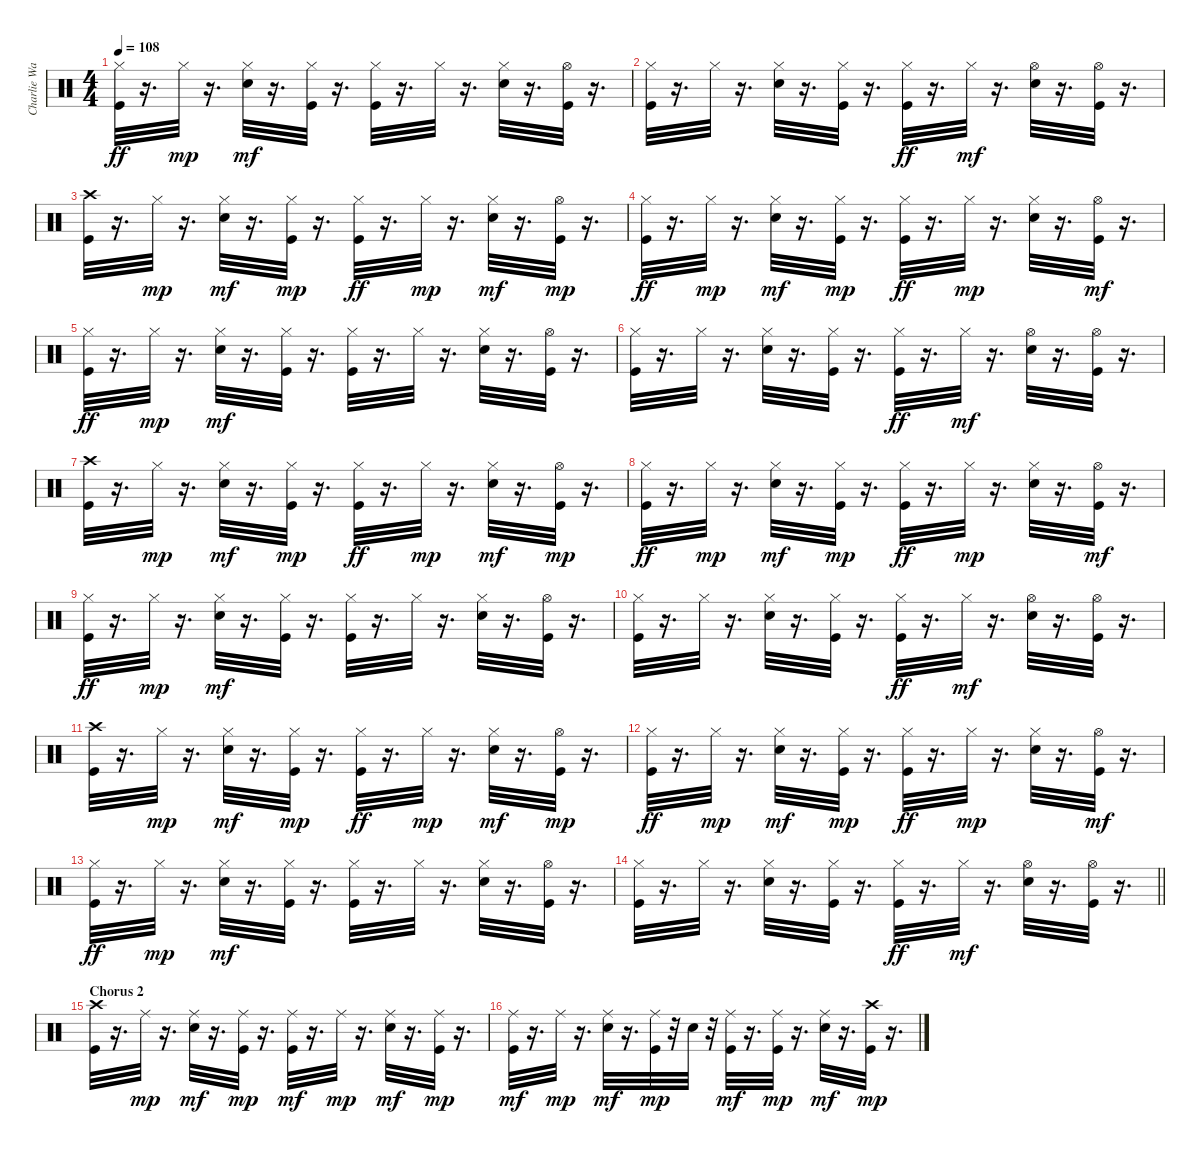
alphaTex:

\track ("Charlie Watts" "Charlie Wa") {instrument percussion}
\staff {score}
\articulation defaults
\ts (4 4)
\tempo 108
\clef neutral
\ks c
("Kick (hit)" "Hi-Hat (closed)").32{dy ff} r.16{d} "Hi-Hat (closed)".32{dy mp} r.16{d} ("Electric Snare (hit)" "Hi-Hat (closed)").32{dy mf} r.16{d} ("Kick (hit)" "Hi-Hat (closed)").32 r.16{d} ("Kick (hit)" "Hi-Hat (closed)").32 r.16{d} "Hi-Hat (closed)".32 r.16{d} ("Electric Snare (hit)" "Hi-Hat (closed)").32 r.16{d} ("Kick (hit)" "Hi-Hat (open)").32 r.16{d} |
("Kick (hit)" "Hi-Hat (closed)").32 r.16{d} "Hi-Hat (closed)".32 r.16{d} ("Electric Snare (hit)" "Hi-Hat (closed)").32 r.16{d} ("Kick (hit)" "Hi-Hat (closed)").32 r.16{d} ("Kick (hit)" "Hi-Hat (closed)").32{dy ff} r.16{d} "Hi-Hat (closed)".32{dy mf} r.16{d} ("Electric Snare (hit)" "Hi-Hat (open)").32 r.16{d} ("Kick (hit)" "Hi-Hat (open)").32 r.16{d} |
("Kick (hit)" "Crash high (hit)").32 r.16{d} "Hi-Hat (closed)".32{dy mp} r.16{d} ("Electric Snare (hit)" "Hi-Hat (closed)").32{dy mf} r.16{d} ("Kick (hit)" "Hi-Hat (closed)").32{dy mp} r.16{d} ("Kick (hit)" "Hi-Hat (closed)").32{dy ff} r.16{d} "Hi-Hat (closed)".32{dy mp} r.16{d} ("Electric Snare (hit)" "Hi-Hat (closed)").32{dy mf} r.16{d} ("Kick (hit)" "Hi-Hat (open)").32{dy mp} r.16{d} |
("Kick (hit)" "Hi-Hat (closed)").32{dy ff} r.16{d} "Hi-Hat (closed)".32{dy mp} r.16{d} ("Electric Snare (hit)" "Hi-Hat (closed)").32{dy mf} r.16{d} ("Kick (hit)" "Hi-Hat (closed)").32{dy mp} r.16{d} ("Kick (hit)" "Hi-Hat (closed)").32{dy ff} r.16{d} "Hi-Hat (closed)".32{dy mp} r.16{d} ("Electric Snare (hit)" "Hi-Hat (closed)").32 r.16{d} ("Kick (hit)" "Hi-Hat (open)").32{dy mf} r.16{d} |
("Kick (hit)" "Hi-Hat (closed)").32{dy ff} r.16{d} "Hi-Hat (closed)".32{dy mp} r.16{d} ("Electric Snare (hit)" "Hi-Hat (closed)").32{dy mf} r.16{d} ("Kick (hit)" "Hi-Hat (closed)").32 r.16{d} ("Kick (hit)" "Hi-Hat (closed)").32 r.16{d} "Hi-Hat (closed)".32 r.16{d} ("Electric Snare (hit)" "Hi-Hat (closed)").32 r.16{d} ("Kick (hit)" "Hi-Hat (open)").32 r.16{d} |
("Kick (hit)" "Hi-Hat (closed)").32 r.16{d} "Hi-Hat (closed)".32 r.16{d} ("Electric Snare (hit)" "Hi-Hat (closed)").32 r.16{d} ("Kick (hit)" "Hi-Hat (closed)").32 r.16{d} ("Kick (hit)" "Hi-Hat (closed)").32{dy ff} r.16{d} "Hi-Hat (closed)".32{dy mf} r.16{d} ("Electric Snare (hit)" "Hi-Hat (open)").32 r.16{d} ("Kick (hit)" "Hi-Hat (open)").32 r.16{d} |
("Kick (hit)" "Crash high (hit)").32 r.16{d} "Hi-Hat (closed)".32{dy mp} r.16{d} ("Electric Snare (hit)" "Hi-Hat (closed)").32{dy mf} r.16{d} ("Kick (hit)" "Hi-Hat (closed)").32{dy mp} r.16{d} ("Kick (hit)" "Hi-Hat (closed)").32{dy ff} r.16{d} "Hi-Hat (closed)".32{dy mp} r.16{d} ("Electric Snare (hit)" "Hi-Hat (closed)").32{dy mf} r.16{d} ("Kick (hit)" "Hi-Hat (open)").32{dy mp} r.16{d} |
("Kick (hit)" "Hi-Hat (closed)").32{dy ff} r.16{d} "Hi-Hat (closed)".32{dy mp} r.16{d} ("Electric Snare (hit)" "Hi-Hat (closed)").32{dy mf} r.16{d} ("Kick (hit)" "Hi-Hat (closed)").32{dy mp} r.16{d} ("Kick (hit)" "Hi-Hat (closed)").32{dy ff} r.16{d} "Hi-Hat (closed)".32{dy mp} r.16{d} ("Electric Snare (hit)" "Hi-Hat (closed)").32 r.16{d} ("Kick (hit)" "Hi-Hat (open)").32{dy mf} r.16{d} |
("Kick (hit)" "Hi-Hat (closed)").32{dy ff} r.16{d} "Hi-Hat (closed)".32{dy mp} r.16{d} ("Electric Snare (hit)" "Hi-Hat (closed)").32{dy mf} r.16{d} ("Kick (hit)" "Hi-Hat (closed)").32 r.16{d} ("Kick (hit)" "Hi-Hat (closed)").32 r.16{d} "Hi-Hat (closed)".32 r.16{d} ("Electric Snare (hit)" "Hi-Hat (closed)").32 r.16{d} ("Kick (hit)" "Hi-Hat (open)").32 r.16{d} |
("Kick (hit)" "Hi-Hat (closed)").32 r.16{d} "Hi-Hat (closed)".32 r.16{d} ("Electric Snare (hit)" "Hi-Hat (closed)").32 r.16{d} ("Kick (hit)" "Hi-Hat (closed)").32 r.16{d} ("Kick (hit)" "Hi-Hat (closed)").32{dy ff} r.16{d} "Hi-Hat (closed)".32{dy mf} r.16{d} ("Electric Snare (hit)" "Hi-Hat (open)").32 r.16{d} ("Kick (hit)" "Hi-Hat (open)").32 r.16{d} |
("Kick (hit)" "Crash high (hit)").32 r.16{d} "Hi-Hat (closed)".32{dy mp} r.16{d} ("Electric Snare (hit)" "Hi-Hat (closed)").32{dy mf} r.16{d} ("Kick (hit)" "Hi-Hat (closed)").32{dy mp} r.16{d} ("Kick (hit)" "Hi-Hat (closed)").32{dy ff} r.16{d} "Hi-Hat (closed)".32{dy mp} r.16{d} ("Electric Snare (hit)" "Hi-Hat (closed)").32{dy mf} r.16{d} ("Kick (hit)" "Hi-Hat (open)").32{dy mp} r.16{d} |
("Kick (hit)" "Hi-Hat (closed)").32{dy ff} r.16{d} "Hi-Hat (closed)".32{dy mp} r.16{d} ("Electric Snare (hit)" "Hi-Hat (closed)").32{dy mf} r.16{d} ("Kick (hit)" "Hi-Hat (closed)").32{dy mp} r.16{d} ("Kick (hit)" "Hi-Hat (closed)").32{dy ff} r.16{d} "Hi-Hat (closed)".32{dy mp} r.16{d} ("Electric Snare (hit)" "Hi-Hat (closed)").32 r.16{d} ("Kick (hit)" "Hi-Hat (open)").32{dy mf} r.16{d} |
("Kick (hit)" "Hi-Hat (closed)").32{dy ff} r.16{d} "Hi-Hat (closed)".32{dy mp} r.16{d} ("Electric Snare (hit)" "Hi-Hat (closed)").32{dy mf} r.16{d} ("Kick (hit)" "Hi-Hat (closed)").32 r.16{d} ("Kick (hit)" "Hi-Hat (closed)").32 r.16{d} "Hi-Hat (closed)".32 r.16{d} ("Electric Snare (hit)" "Hi-Hat (closed)").32 r.16{d} ("Kick (hit)" "Hi-Hat (open)").32 r.16{d} |
\barLineRight lightlight
("Kick (hit)" "Hi-Hat (closed)").32 r.16{d} "Hi-Hat (closed)".32 r.16{d} ("Electric Snare (hit)" "Hi-Hat (closed)").32 r.16{d} ("Kick (hit)" "Hi-Hat (closed)").32 r.16{d} ("Kick (hit)" "Hi-Hat (closed)").32{dy ff} r.16{d} "Hi-Hat (closed)".32{dy mf} r.16{d} ("Electric Snare (hit)" "Hi-Hat (open)").32 r.16{d} ("Kick (hit)" "Hi-Hat (open)").32 r.16{d} |
\section ("" "Chorus 2 ")
("Kick (hit)" "Crash high (hit)").32 r.16{d} "Ride (middle)".32{dy mp} r.16{d} ("Electric Snare (hit)" "Ride (middle)").32{dy mf} r.16{d} ("Kick (hit)" "Ride (middle)").32{dy mp} r.16{d} ("Kick (hit)" "Ride (middle)").32{dy mf} r.16{d} "Ride (middle)".32{dy mp} r.16{d} ("Electric Snare (hit)" "Ride (middle)").32{dy mf} r.16{d} ("Kick (hit)" "Ride (middle)").32{dy mp} r.16{d} |
("Kick (hit)" "Ride (middle)").32{dy mf} r.16{d} "Ride (middle)".32{dy mp} r.16{d} ("Electric Snare (hit)" "Ride (middle)").32{dy mf} r.16{d} ("Kick (hit)" "Ride (middle)").32{dy mp} r.32 "Electric Snare (hit)".32 r.32 ("Kick (hit)" "Ride (middle)").32{dy mf} r.16{d} ("Kick (hit)" "Ride (middle)").32{dy mp} r.16{d} ("Electric Snare (hit)" "Ride (middle)").32{dy mf} r.16{d} ("Kick (hit)" "Crash high (hit)").32{dy mp} r.16{d}
